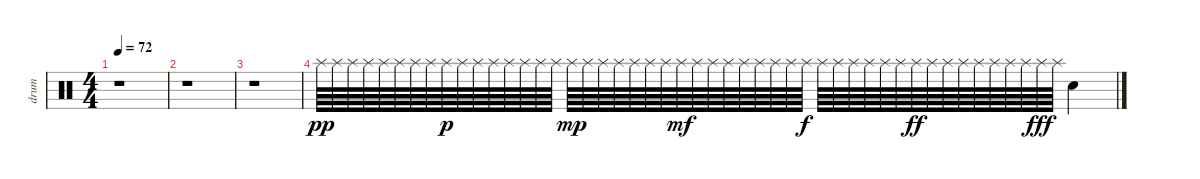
\track ("drum" "drum") {instrument percussion}
\staff {score}
\articulation defaults
\ts (4 4)
\tempo 72
\clef neutral
\ks c
r.1{dy f} |
r.1 |
r.1 |
"Splash (hit)".64{dy pp} "Splash (hit)".64 "Splash (hit)".64 "Splash (hit)".64 "Splash (hit)".64 "Splash (hit)".64 "Splash (hit)".64 "Splash (hit)".64 "Splash (hit)".64{dy p} "Splash (hit)".64 "Splash (hit)".64 "Splash (hit)".64 "Splash (hit)".64 "Splash (hit)".64 "Splash (hit)".64 "Splash (hit)".64 "Splash (hit)".64{dy mp} "Splash (hit)".64 "Splash (hit)".64 "Splash (hit)".64 "Splash (hit)".64 "Splash (hit)".64 "Splash (hit)".64 "Splash (hit)".64{dy mf} "Splash (hit)".64 "Splash (hit)".64 "Splash (hit)".64 "Splash (hit)".64 "Splash (hit)".64 "Splash (hit)".64 "Splash (hit)".64 "Splash (hit)".64{dy f} "Splash (hit)".64 "Splash (hit)".64 "Splash (hit)".64 "Splash (hit)".64 "Splash (hit)".64 "Splash (hit)".64 "Splash (hit)".64{dy ff} "Splash (hit)".64 "Splash (hit)".64 "Splash (hit)".64 "Splash (hit)".64 "Splash (hit)".64 "Splash (hit)".64 "Splash (hit)".64 "Splash (hit)".64{dy fff} "Splash (hit)".64 "Snare (hit)".4
